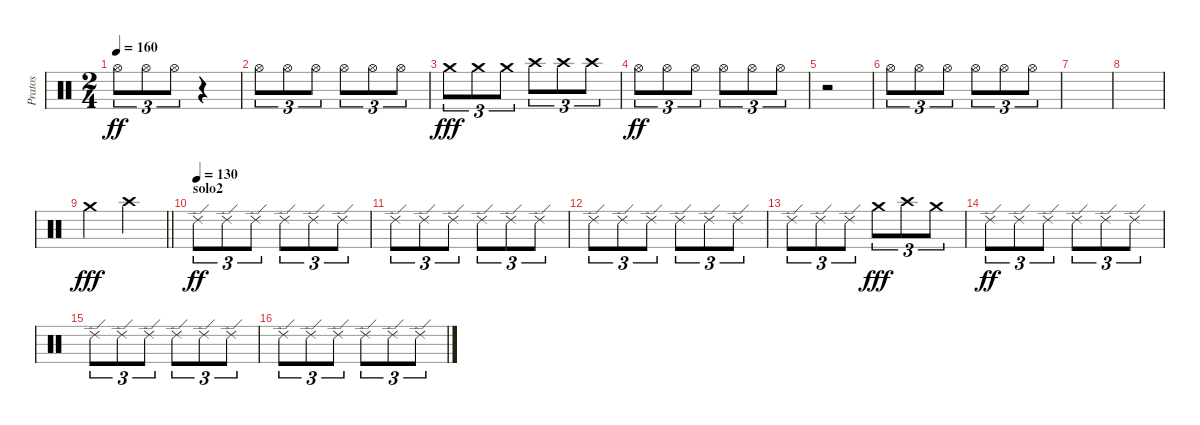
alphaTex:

\track ("Pratos" "Pratos") {instrument percussion}
\staff {score}
\articulation defaults
\ts (2 4)
\tempo 160
\clef neutral
\ks c "Hi-Hat (open)".8{tu (3 2) dy ff} "Hi-Hat (open)".8{tu (3 2)} "Hi-Hat (open)".8{tu (3 2)}
r.4 |
"Hi-Hat (open)".8{tu (3 2)} "Hi-Hat (open)".8{tu (3 2)} "Hi-Hat (open)".8{tu (3 2)} "Hi-Hat (open)".8{tu (3 2)} "Hi-Hat (open)".8{tu (3 2)} "Hi-Hat (open)".8{tu (3 2)} |
"Crash medium (hit)".8{tu (3 2) dy fff} "Crash medium (hit)".8{tu (3 2)} "Crash medium (hit)".8{tu (3 2)} "Crash high (hit)".8{tu (3 2)} "Crash high (hit)".8{tu (3 2)} "Crash high (hit)".8{tu (3 2)} |
"Hi-Hat (open)".8{tu (3 2) dy ff} "Hi-Hat (open)".8{tu (3 2)} "Hi-Hat (open)".8{tu (3 2)} "Hi-Hat (open)".8{tu (3 2)} "Hi-Hat (open)".8{tu (3 2)} "Hi-Hat (open)".8{tu (3 2)} |
r.2 |
"Hi-Hat (open)".8{tu (3 2)} "Hi-Hat (open)".8{tu (3 2)} "Hi-Hat (open)".8{tu (3 2)} "Hi-Hat (open)".8{tu (3 2)} "Hi-Hat (open)".8{tu (3 2)} "Hi-Hat (open)".8{tu (3 2)} |
|
|
\barLineRight lightlight "Crash medium (hit)".4{dy fff} "Crash high (hit)".4
|
\section ("" "solo2")
\tempo (130)
"Ride (edge) 2".8{tu (3 2) dy ff} "Ride (edge) 2".8{tu (3 2)} "Ride (edge) 2".8{tu (3 2)} "Ride (edge) 2".8{tu (3 2)} "Ride (edge) 2".8{tu (3 2)} "Ride (edge) 2".8{tu (3 2)} |
"Ride (edge) 2".8{tu (3 2)} "Ride (edge) 2".8{tu (3 2)} "Ride (edge) 2".8{tu (3 2)} "Ride (edge) 2".8{tu (3 2)} "Ride (edge) 2".8{tu (3 2)} "Ride (edge) 2".8{tu (3 2)} |
"Ride (edge) 2".8{tu (3 2)} "Ride (edge) 2".8{tu (3 2)} "Ride (edge) 2".8{tu (3 2)} "Ride (edge) 2".8{tu (3 2)} "Ride (edge) 2".8{tu (3 2)} "Ride (edge) 2".8{tu (3 2)} |
"Ride (edge) 2".8{tu (3 2)} "Ride (edge) 2".8{tu (3 2)} "Ride (edge) 2".8{tu (3 2)} "Crash medium (hit)".8{tu (3 2) dy fff} "Crash high (hit)".8{tu (3 2)} "Crash medium (hit)".8{tu (3 2)} |
"Ride (edge) 2".8{tu (3 2) dy ff} "Ride (edge) 2".8{tu (3 2)} "Ride (edge) 2".8{tu (3 2)} "Ride (edge) 2".8{tu (3 2)} "Ride (edge) 2".8{tu (3 2)} "Ride (edge) 2".8{tu (3 2)} |
"Ride (edge) 2".8{tu (3 2)} "Ride (edge) 2".8{tu (3 2)} "Ride (edge) 2".8{tu (3 2)} "Ride (edge) 2".8{tu (3 2)} "Ride (edge) 2".8{tu (3 2)} "Ride (edge) 2".8{tu (3 2)} |
"Ride (edge) 2".8{tu (3 2)} "Ride (edge) 2".8{tu (3 2)} "Ride (edge) 2".8{tu (3 2)} "Ride (edge) 2".8{tu (3 2)} "Ride (edge) 2".8{tu (3 2)} "Ride (edge) 2".8{tu (3 2)}
